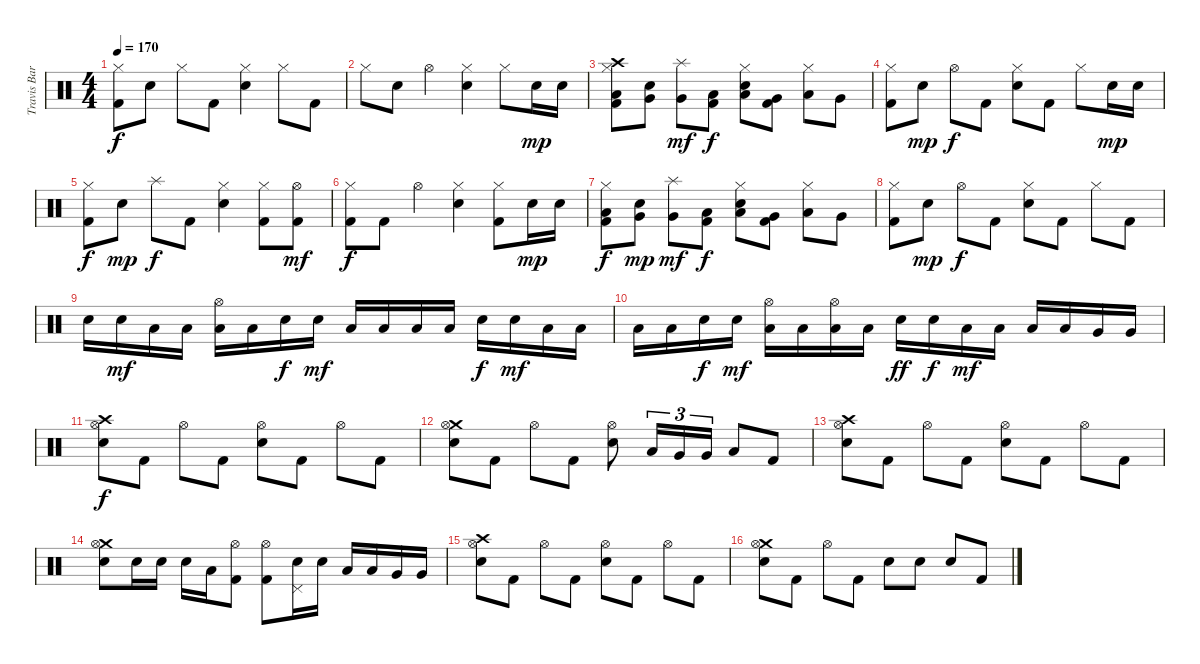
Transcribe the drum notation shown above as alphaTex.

\track ("Travis Barker" "Travis Bar") {instrument percussion}
\staff {score}
\articulation defaults
\ts (4 4)
\tempo 170
\clef neutral
\ks c
("Hi-Hat (closed)" "Kick (hit) 2").8{dy f} "Electric Snare (hit)".8 "Hi-Hat (closed)".8 "Kick (hit) 2".8 ("Hi-Hat (closed)" "Electric Snare (hit)").4 "Hi-Hat (closed)".8 "Kick (hit) 2".8 |
"Hi-Hat (closed)".8 "Electric Snare (hit)".8 "Hi-Hat (open)".4 ("Hi-Hat (closed)" "Electric Snare (hit)").4 "Hi-Hat (closed)".8 "Electric Snare (hit)".16{dy mp} "Electric Snare (hit)".16 |
("Crash high (hit)" "Hi-Hat (closed)" "Low Floor Tom (hit)" "Kick (hit) 2").8 ("Very Low Tom (hit)" "Electric Snare (hit)").8 ("Splash (hit)" "Very Low Tom (hit)").8{dy mf} ("Low Floor Tom (hit)" "Kick (hit) 2").8{dy f} ("Hi-Hat (closed)" "Low Floor Tom (hit)" "Electric Snare (hit)").8 ("Very Low Tom (hit)" "Kick (hit) 2").8 ("Hi-Hat (closed)" "Low Tom (hit)").8 "Very Low Tom (hit)".8 |
("Hi-Hat (closed)" "Kick (hit) 2").8 "Electric Snare (hit)".8{dy mp} "Hi-Hat (open)".8{dy f} "Kick (hit) 2".8 ("Hi-Hat (closed)" "Electric Snare (hit)").8 "Kick (hit) 2".8 "Hi-Hat (closed)".8 "Electric Snare (hit)".16{dy mp} "Electric Snare (hit)".16 |
("Hi-Hat (closed)" "Kick (hit) 2").8{dy f} "Electric Snare (hit)".8{dy mp} "Splash (hit)".8{dy f} "Kick (hit) 2".8 ("Hi-Hat (closed)" "Electric Snare (hit)").4 ("Hi-Hat (closed)" "Kick (hit) 2").8 ("Hi-Hat (open)" "Kick (hit) 2").8{dy mf} |
("Hi-Hat (closed)" "Kick (hit) 2").8{dy f} "Kick (hit) 2".8 "Hi-Hat (open)".4 ("Hi-Hat (closed)" "Electric Snare (hit)").4 ("Hi-Hat (closed)" "Kick (hit) 2").8 "Electric Snare (hit)".16{dy mp} "Electric Snare (hit)".16 |
("Hi-Hat (closed)" "Low Floor Tom (hit)" "Kick (hit) 2").8{dy f} ("Very Low Tom (hit)" "Electric Snare (hit)").8{dy mp} ("Splash (hit)" "Very Low Tom (hit)").8{dy mf} ("Low Floor Tom (hit)" "Kick (hit) 2").8{dy f} ("Hi-Hat (closed)" "Low Floor Tom (hit)" "Electric Snare (hit)").8 ("Very Low Tom (hit)" "Kick (hit) 2").8 ("Hi-Hat (closed)" "Low Tom (hit)").8 "Very Low Tom (hit)".8 |
("Hi-Hat (closed)" "Kick (hit) 2").8 "Electric Snare (hit)".8{dy mp} "Hi-Hat (open)".8{dy f} "Kick (hit) 2".8 ("Hi-Hat (closed)" "Electric Snare (hit)").8 "Kick (hit) 2".8 "Hi-Hat (closed)".8 "Kick (hit) 2".8 |
"Electric Snare (hit)".16 "Electric Snare (hit)".16{dy mf} "Low Tom (hit)".16 "Low Tom (hit)".16 ("Hi-Hat (open)" "Low Tom (hit)").16 "Low Tom (hit)".16 "Electric Snare (hit)".16{dy f} "Electric Snare (hit)".16{dy mf} "Low Tom (hit)".16 "Low Tom (hit)".16 "Low Tom (hit)".16 "Low Tom (hit)".16 "Electric Snare (hit)".16{dy f} "Electric Snare (hit)".16{dy mf} "Low Tom (hit)".16 "Low Tom (hit)".16 |
"Low Tom (hit)".16 "Low Tom (hit)".16 "Electric Snare (hit)".16{dy f} "Electric Snare (hit)".16{dy mf} ("Hi-Hat (open)" "Low Tom (hit)").16 "Low Tom (hit)".16 ("Hi-Hat (open)" "Low Tom (hit)").16 "Low Tom (hit)".16 "Electric Snare (hit)".16{dy ff} "Electric Snare (hit)".16{dy f} "Low Tom (hit)".16{dy mf} "Low Tom (hit)".16 "Low Tom (hit)".16 "Low Tom (hit)".16 "Very Low Tom (hit)".16 "Very Low Tom (hit)".16 |
("Crash high (hit)" "Hi-Hat (open)" "Snare (hit) 2").8{dy f} "Kick (hit) 2".8 "Hi-Hat (open)".8 "Kick (hit) 2".8 ("Hi-Hat (open)" "Snare (hit) 2").8 "Kick (hit) 2".8 "Hi-Hat (open)".8 "Kick (hit) 2".8 |
("Crash medium (hit)" "Hi-Hat (open)" "Snare (hit) 2").8 "Kick (hit) 2".8 "Hi-Hat (open)".8 "Kick (hit) 2".8 ("Hi-Hat (open)" "Snare (hit) 2").8 "Low Tom (hit)".16{tu (3 2)} "Very Low Tom (hit)".16{tu (3 2)} "Very Low Tom (hit)".16{tu (3 2)} "Low Tom (hit)".8 "Kick (hit) 2".8 |
("Crash high (hit)" "Hi-Hat (open)" "Snare (hit) 2").8 "Kick (hit) 2".8 "Hi-Hat (open)".8 "Kick (hit) 2".8 ("Hi-Hat (open)" "Snare (hit) 2").8 "Kick (hit) 2".8 "Hi-Hat (open)".8 "Kick (hit) 2".8 |
("Crash medium (hit)" "Hi-Hat (open)" "Snare (hit) 2").8 "Snare (hit) 2".16 "Snare (hit) 2".16 "Snare (hit) 2".16 "Low Tom (hit)".16 ("Hi-Hat (open)" "Kick (hit) 2").8 ("Hi-Hat (open)" "Kick (hit) 2").8 ("Pedal Hi-Hat (hit)" "Snare (hit) 2").16 "Snare (hit) 2".16 "Low Tom (hit)".16 "Low Tom (hit)".16 "Very Low Tom (hit)".16 "Very Low Tom (hit)".16 |
("Crash high (hit)" "Hi-Hat (open)" "Snare (hit) 2").8 "Kick (hit) 2".8 "Hi-Hat (open)".8 "Kick (hit) 2".8 ("Hi-Hat (open)" "Snare (hit) 2").8 "Kick (hit) 2".8 "Hi-Hat (open)".8 "Kick (hit) 2".8 |
("Crash medium (hit)" "Hi-Hat (open)" "Snare (hit) 2").8 "Kick (hit) 2".8 "Hi-Hat (open)".8 "Kick (hit) 2".8 "Snare (hit) 2".8 "Snare (hit) 2".8 "Snare (hit) 2".8 "Kick (hit) 2".8
